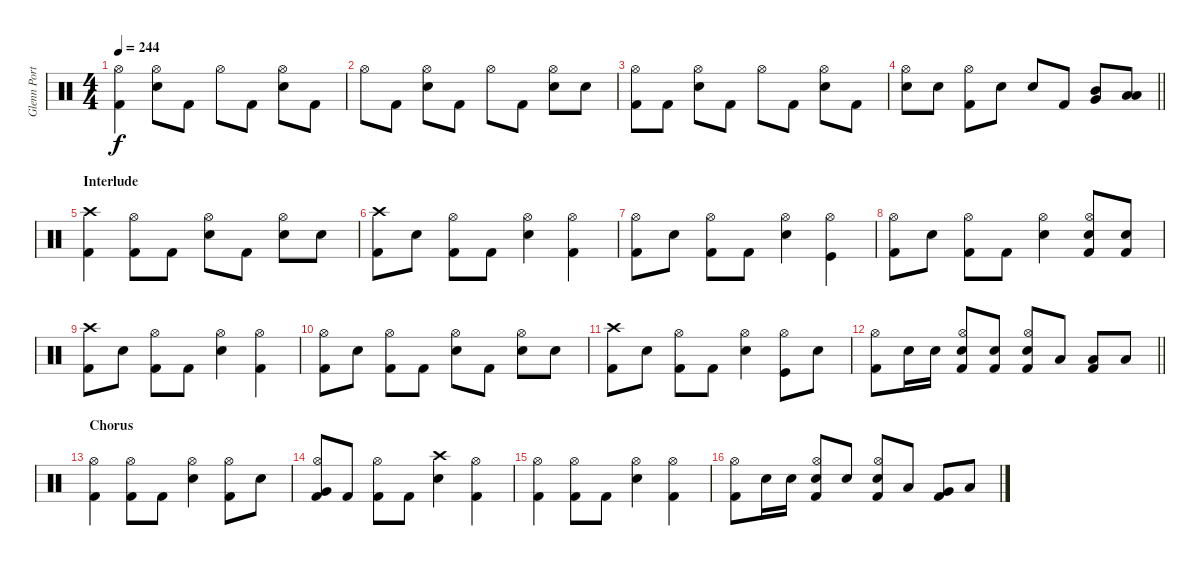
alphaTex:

\track ("Glenn Porter - Drums" "Glenn Port") {instrument percussion}
\staff {score}
\articulation defaults
\ts (4 4)
\tempo 244
\clef neutral
\ks c
("Kick (hit) 2" "Hi-Hat (open)").4{dy f} ("Snare (hit) 2" "Hi-Hat (open)").8 "Kick (hit) 2".8 "Hi-Hat (open)".8 "Kick (hit) 2".8 ("Snare (hit) 2" "Hi-Hat (open)").8 "Kick (hit) 2".8 |
"Hi-Hat (open)".8 "Kick (hit) 2".8 ("Snare (hit) 2" "Hi-Hat (open)").8 "Kick (hit) 2".8 "Hi-Hat (open)".8 "Kick (hit) 2".8 ("Snare (hit) 2" "Hi-Hat (open)").8 "Snare (hit) 2".8 |
("Kick (hit) 2" "Hi-Hat (open)").8 "Kick (hit) 2".8 ("Snare (hit) 2" "Hi-Hat (open)").8 "Kick (hit) 2".8 "Hi-Hat (open)".8 "Kick (hit) 2".8 ("Snare (hit) 2" "Hi-Hat (open)").8 "Kick (hit) 2".8 |
\barLineRight lightlight
("Snare (hit) 2" "Hi-Hat (open)").8 "Snare (hit) 2".8 ("Kick (hit) 2" "Hi-Hat (open)").8 "Snare (hit) 2".8 "Snare (hit) 2".8 "Kick (hit) 2".8 ("Mid Tom (hit)" "Very Low Tom (hit)").8 ("Low Tom (hit)" "Low Floor Tom (hit)").8 |
\section ("" "Interlude")
("Kick (hit) 2" "Crash high (hit)").4 ("Kick (hit) 2" "Hi-Hat (open)").8 "Kick (hit) 2".8 ("Snare (hit) 2" "Hi-Hat (open)").8 "Kick (hit) 2".8 ("Snare (hit) 2" "Hi-Hat (open)").8 "Snare (hit) 2".8 |
("Kick (hit) 2" "Crash high (hit)").8 "Snare (hit) 2".8 ("Kick (hit) 2" "Hi-Hat (open)").8 "Kick (hit) 2".8 ("Snare (hit) 2" "Hi-Hat (open)").4 ("Kick (hit) 2" "Hi-Hat (open)").4 |
("Kick (hit) 2" "Hi-Hat (open)").8 "Snare (hit) 2".8 ("Kick (hit) 2" "Hi-Hat (open)").8 "Kick (hit) 2".8 ("Snare (hit) 2" "Hi-Hat (open)").4 ("Kick (hit)" "Hi-Hat (open)").4 |
("Kick (hit) 2" "Hi-Hat (open)").8 "Snare (hit) 2".8 ("Kick (hit) 2" "Hi-Hat (open)").8 "Kick (hit) 2".8 ("Snare (hit) 2" "Hi-Hat (open)").4 ("Kick (hit) 2" "Hi-Hat (open)" "Snare (hit) 2").8 ("Kick (hit) 2" "Snare (hit) 2").8 |
("Kick (hit) 2" "Crash high (hit)").8 "Snare (hit) 2".8 ("Kick (hit) 2" "Hi-Hat (open)").8 "Kick (hit) 2".8 ("Snare (hit) 2" "Hi-Hat (open)").4 ("Kick (hit) 2" "Hi-Hat (open)").4 |
("Kick (hit) 2" "Hi-Hat (open)").8 "Snare (hit) 2".8 ("Kick (hit) 2" "Hi-Hat (open)").8 "Kick (hit) 2".8 ("Snare (hit) 2" "Hi-Hat (open)").8 "Kick (hit) 2".8 ("Hi-Hat (open)" "Snare (hit) 2").8 "Snare (hit) 2".8 |
("Kick (hit) 2" "Crash high (hit)").8 "Snare (hit) 2".8 ("Kick (hit) 2" "Hi-Hat (open)").8 "Kick (hit) 2".8 ("Snare (hit) 2" "Hi-Hat (open)").4 ("Kick (hit)" "Hi-Hat (open)").8 "Snare (hit) 2".8 |
\barLineRight lightlight
("Kick (hit) 2" "Hi-Hat (open)").8 "Snare (hit) 2".16 "Snare (hit) 2".16 ("Kick (hit) 2" "Hi-Hat (open)" "Snare (hit) 2").8 ("Kick (hit) 2" "Snare (hit) 2").8 ("Kick (hit) 2" "Hi-Hat (open)" "Snare (hit) 2").8 "Low Tom (hit)".8 ("Low Floor Tom (hit)" "Kick (hit) 2").8 "Low Floor Tom (hit)".8 |
\section ("" "Chorus")
("Kick (hit) 2" "Hi-Hat (open)").4 ("Kick (hit) 2" "Hi-Hat (open)").8 "Kick (hit) 2".8 ("Snare (hit) 2" "Hi-Hat (open)").4 ("Kick (hit) 2" "Hi-Hat (open)").8 "Snare (hit) 2".8 |
("Kick (hit) 2" "Hi-Hat (open)" "Very Low Tom (hit)").8 "Kick (hit) 2".8 ("Kick (hit) 2" "Hi-Hat (open)").8 "Kick (hit) 2".8 ("Snare (hit) 2" "Crash high (hit)").4 ("Kick (hit) 2" "Hi-Hat (open)").4 |
("Kick (hit) 2" "Hi-Hat (open)").4 ("Kick (hit) 2" "Hi-Hat (open)").8 "Kick (hit) 2".8 ("Snare (hit) 2" "Hi-Hat (open)").4 ("Kick (hit) 2" "Hi-Hat (open)").4 |
("Kick (hit) 2" "Hi-Hat (open)").8 "Snare (hit) 2".16 "Snare (hit) 2".16 ("Snare (hit) 2" "Kick (hit) 2" "Hi-Hat (open)").8 "Snare (hit) 2".8 ("Snare (hit) 2" "Kick (hit) 2" "Hi-Hat (open)").8 "Low Tom (hit)".8 ("Very Low Tom (hit)" "Kick (hit) 2").8 "Low Floor Tom (hit)".8
